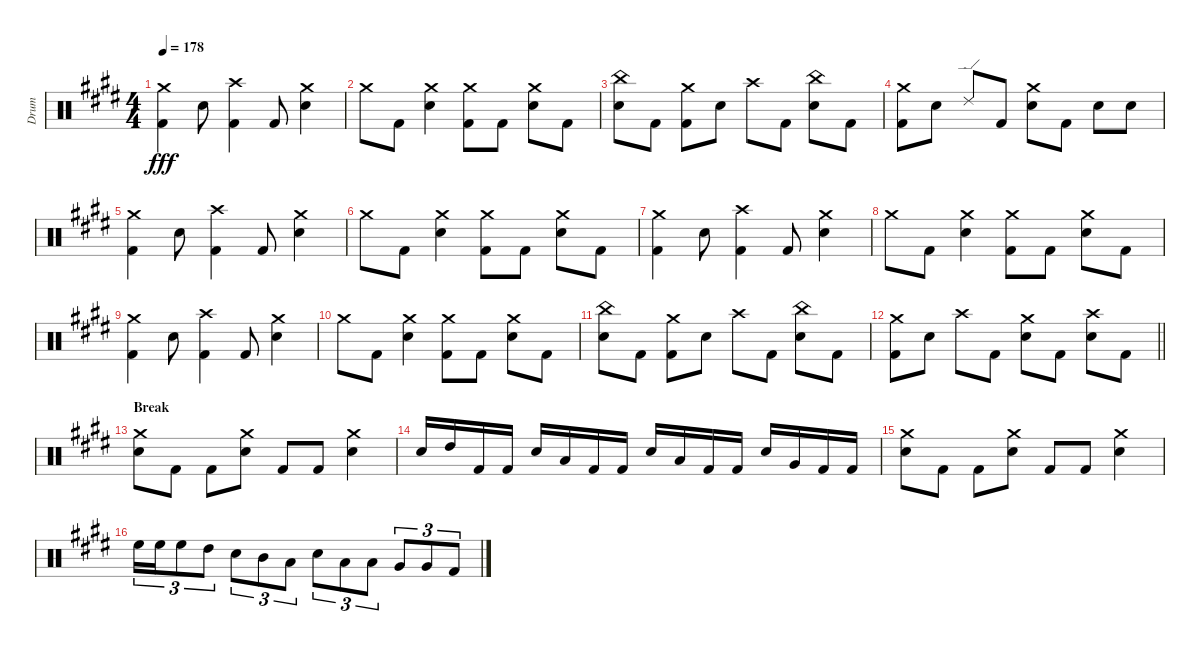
\track ("Drum" "Drum") {instrument percussion}
\staff {score}
\articulation defaults
\ts (4 4)
\tempo 178
\clef neutral
\ks e
("Crash medium (hit)" "Kick (hit) 2").4{dy fff} "Electric Snare (hit)".8 ("Crash high (hit)" "Kick (hit) 2").4 "Kick (hit) 2".8 ("Crash medium (hit)" "Electric Snare (hit)").4 |
"Crash medium (hit)".8 "Kick (hit) 2".8 ("Crash medium (hit)" "Electric Snare (hit)").4 ("Crash medium (hit)" "Kick (hit) 2").8 "Kick (hit) 2".8 ("Crash medium (hit)" "Electric Snare (hit)").8 "Kick (hit) 2".8 |
("China (hit)" "Electric Snare (hit)").8 "Kick (hit) 2".8 ("Crash medium (hit)" "Kick (hit) 2").8 "Electric Snare (hit)".8 "Crash high (hit)".8 "Kick (hit) 2".8 ("China (hit)" "Electric Snare (hit)").8 "Kick (hit) 2".8 |
("Crash medium (hit)" "Kick (hit) 2").8 "Electric Snare (hit)".8 "Ride (edge) 2".8 "Kick (hit) 2".8 ("Crash medium (hit)" "Electric Snare (hit)").8 "Kick (hit) 2".8 "Electric Snare (hit)".8 "Electric Snare (hit)".8 |
("Crash medium (hit)" "Kick (hit) 2").4 "Electric Snare (hit)".8 ("Crash high (hit)" "Kick (hit) 2").4 "Kick (hit) 2".8 ("Crash medium (hit)" "Electric Snare (hit)").4 |
"Crash medium (hit)".8 "Kick (hit) 2".8 ("Crash medium (hit)" "Electric Snare (hit)").4 ("Crash medium (hit)" "Kick (hit) 2").8 "Kick (hit) 2".8 ("Crash medium (hit)" "Electric Snare (hit)").8 "Kick (hit) 2".8 |
("Crash medium (hit)" "Kick (hit) 2").4 "Electric Snare (hit)".8 ("Crash high (hit)" "Kick (hit) 2").4 "Kick (hit) 2".8 ("Crash medium (hit)" "Electric Snare (hit)").4 |
"Crash medium (hit)".8 "Kick (hit) 2".8 ("Crash medium (hit)" "Electric Snare (hit)").4 ("Crash medium (hit)" "Kick (hit) 2").8 "Kick (hit) 2".8 ("Crash medium (hit)" "Electric Snare (hit)").8 "Kick (hit) 2".8 |
("Crash medium (hit)" "Kick (hit) 2").4 "Electric Snare (hit)".8 ("Crash high (hit)" "Kick (hit) 2").4 "Kick (hit) 2".8 ("Crash medium (hit)" "Electric Snare (hit)").4 |
"Crash medium (hit)".8 "Kick (hit) 2".8 ("Crash medium (hit)" "Electric Snare (hit)").4 ("Crash medium (hit)" "Kick (hit) 2").8 "Kick (hit) 2".8 ("Crash medium (hit)" "Electric Snare (hit)").8 "Kick (hit) 2".8 |
("China (hit)" "Electric Snare (hit)").8 "Kick (hit) 2".8 ("Crash medium (hit)" "Kick (hit) 2").8 "Electric Snare (hit)".8 "Crash high (hit)".8 "Kick (hit) 2".8 ("China (hit)" "Electric Snare (hit)").8 "Kick (hit) 2".8 |
\barLineRight lightlight
("Crash medium (hit)" "Kick (hit) 2").8 "Electric Snare (hit)".8 "Crash high (hit)".8 "Kick (hit) 2".8 ("Crash medium (hit)" "Electric Snare (hit)").8 "Kick (hit) 2".8 ("Crash high (hit)" "Electric Snare (hit)").8 "Kick (hit) 2".8 |
\section ("" "Break")
("Crash medium (hit)" "Electric Snare (hit)").8 "Kick (hit) 2".8 "Kick (hit) 2".8 ("Crash medium (hit)" "Electric Snare (hit)").8 "Kick (hit) 2".8 "Kick (hit) 2".8 ("Crash medium (hit)" "Electric Snare (hit)").4 |
"Electric Snare (hit)".16 "High Tom (hit)".16 "Kick (hit) 2".16 "Kick (hit) 2".16 "Electric Snare (hit)".16 "Low Tom (hit)".16 "Kick (hit) 2".16 "Kick (hit) 2".16 "Electric Snare (hit)".16 "Low Tom (hit)".16 "Kick (hit) 2".16 "Kick (hit) 2".16 "Electric Snare (hit)".16 "Very Low Tom (hit)".16 "Kick (hit) 2".16 "Kick (hit) 2".16 |
("Crash medium (hit)" "Electric Snare (hit)").8 "Kick (hit) 2".8 "Kick (hit) 2".8 ("Crash medium (hit)" "Electric Snare (hit)").8 "Kick (hit) 2".8 "Kick (hit) 2".8 ("Crash medium (hit)" "Electric Snare (hit)").4 |
"High Floor Tom (hit)".16{tu (3 2)} "High Floor Tom (hit)".16{tu (3 2)} "High Floor Tom (hit)".8{tu (3 2)} "High Tom (hit)".8{tu (3 2)} "Electric Snare (hit)".8{tu (3 2)} "Mid Tom (hit)".8{tu (3 2)} "Low Tom (hit)".8{tu (3 2)} "Electric Snare (hit)".8{tu (3 2)} "Low Tom (hit)".8{tu (3 2)} "Low Tom (hit)".8{tu (3 2)} "Very Low Tom (hit)".8{tu (3 2)} "Very Low Tom (hit)".8{tu (3 2)} "Kick (hit) 2".8{tu (3 2)}
